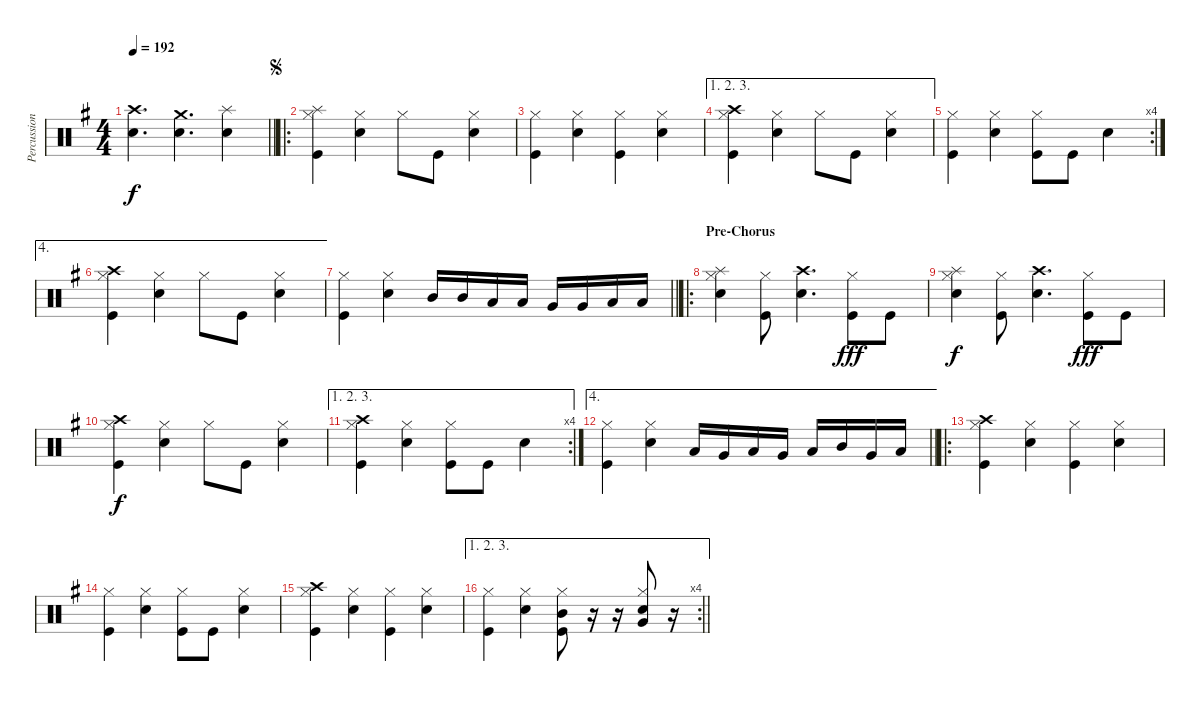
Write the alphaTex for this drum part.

\track ("Percussion" "Percussion") {instrument percussion}
\staff {score}
\articulation defaults
\ts (4 4)
\tempo 192
\clef neutral
\barLineRight lightlight
\ks g
("Crash high (hit)" "Snare (hit) 2").4{d dy f} ("Crash medium (hit)" "Snare (hit) 2").4{d} ("Splash (hit)" "Snare (hit) 2").4 |
\ro
\jump segno
("Hi-Hat (closed)" "Splash (hit)" "Kick (hit)").4 ("Hi-Hat (closed)" "Snare (hit) 2").4 "Hi-Hat (closed)".8 "Kick (hit)".8 ("Snare (hit) 2" "Hi-Hat (closed)").4 |
("Hi-Hat (closed)" "Kick (hit)").4 ("Hi-Hat (closed)" "Snare (hit) 2").4 ("Hi-Hat (closed)" "Kick (hit)").4 ("Hi-Hat (closed)" "Snare (hit) 2").4 |
\ae (1 2 3)
("Hi-Hat (closed)" "Crash high (hit)" "Kick (hit)").4 ("Hi-Hat (closed)" "Snare (hit) 2").4 "Hi-Hat (closed)".8 "Kick (hit)".8 ("Snare (hit) 2" "Hi-Hat (closed)").4 |
\rc 4
("Hi-Hat (closed)" "Kick (hit)").4 ("Hi-Hat (closed)" "Snare (hit) 2").4 ("Hi-Hat (closed)" "Kick (hit)").8 "Kick (hit)".8 "Snare (hit) 2".4 |
\ae 4
("Hi-Hat (closed)" "Crash high (hit)" "Kick (hit)").4 ("Hi-Hat (closed)" "Snare (hit) 2").4 "Hi-Hat (closed)".8 "Kick (hit)".8 ("Snare (hit) 2" "Hi-Hat (closed)").4 |
\barLineRight lightlight
("Hi-Hat (closed)" "Kick (hit)").4 ("Hi-Hat (closed)" "Snare (hit) 2").4 "Mid Tom (hit)".16 "Mid Tom (hit)".16 "Low Tom (hit)".16 "Low Tom (hit)".16 "Very Low Tom (hit)".16 "Very Low Tom (hit)".16 "Low Floor Tom (hit)".16 "Low Floor Tom (hit)".16 |
\ro
\section ("" "Pre-Chorus")
("Hi-Hat (closed)" "Splash (hit)" "Snare (hit) 2").4 ("Hi-Hat (closed)" "Kick (hit)").8 ("Crash high (hit)" "Snare (hit) 2").4{d} ("Hi-Hat (closed)" "Kick (hit)").8{dy fff} "Kick (hit)".8 |
("Hi-Hat (closed)" "Splash (hit)" "Snare (hit) 2").4{dy f} ("Hi-Hat (closed)" "Kick (hit)").8 ("Crash high (hit)" "Snare (hit) 2").4{d} ("Hi-Hat (closed)" "Kick (hit)").8{dy fff} "Kick (hit)".8 |
("Hi-Hat (closed)" "Crash high (hit)" "Kick (hit)").4{dy f} ("Hi-Hat (closed)" "Snare (hit) 2").4 "Hi-Hat (closed)".8 "Kick (hit)".8 ("Snare (hit) 2" "Hi-Hat (closed)").4 |
\ae (1 2 3)
\rc 4
("Crash high (hit)" "Hi-Hat (closed)" "Kick (hit)").4 ("Hi-Hat (closed)" "Snare (hit) 2").4 ("Hi-Hat (closed)" "Kick (hit)").8 "Kick (hit)".8 "Snare (hit) 2".4 |
\ae 4
\barLineRight lightlight
("Hi-Hat (closed)" "Kick (hit)").4 ("Hi-Hat (closed)" "Snare (hit) 2").4 "Low Tom (hit)".16 "Very Low Tom (hit)".16 "Low Floor Tom (hit)".16 "Very Low Tom (hit)".16 "Low Tom (hit)".16 "Mid Tom (hit)".16 "Very Low Tom (hit)".16 "Low Tom (hit)".16 |
\ro
("Hi-Hat (closed)" "Crash high (hit)" "Kick (hit)").4 ("Hi-Hat (closed)" "Snare (hit) 2").4 ("Hi-Hat (closed)" "Kick (hit)").4 ("Snare (hit) 2" "Hi-Hat (closed)").4 |
("Hi-Hat (closed)" "Kick (hit)").4 ("Hi-Hat (closed)" "Snare (hit) 2").4 ("Hi-Hat (closed)" "Kick (hit)").8 "Kick (hit)".8 ("Hi-Hat (closed)" "Snare (hit) 2").4 |
("Hi-Hat (closed)" "Crash high (hit)" "Kick (hit)").4 ("Hi-Hat (closed)" "Snare (hit) 2").4 ("Hi-Hat (closed)" "Kick (hit)").4 ("Snare (hit) 2" "Hi-Hat (closed)").4 |
\ae (1 2 3)
\rc 4
\barLineRight lightlight
("Hi-Hat (closed)" "Kick (hit)").4 ("Hi-Hat (closed)" "Snare (hit) 2").4 ("Hi-Hat (closed)" "Mid Tom (hit)" "Kick (hit)").8 r.16 r.16 ("Hi-Hat (closed)" "Very Low Tom (hit)" "Snare (hit) 2").8 r.16
